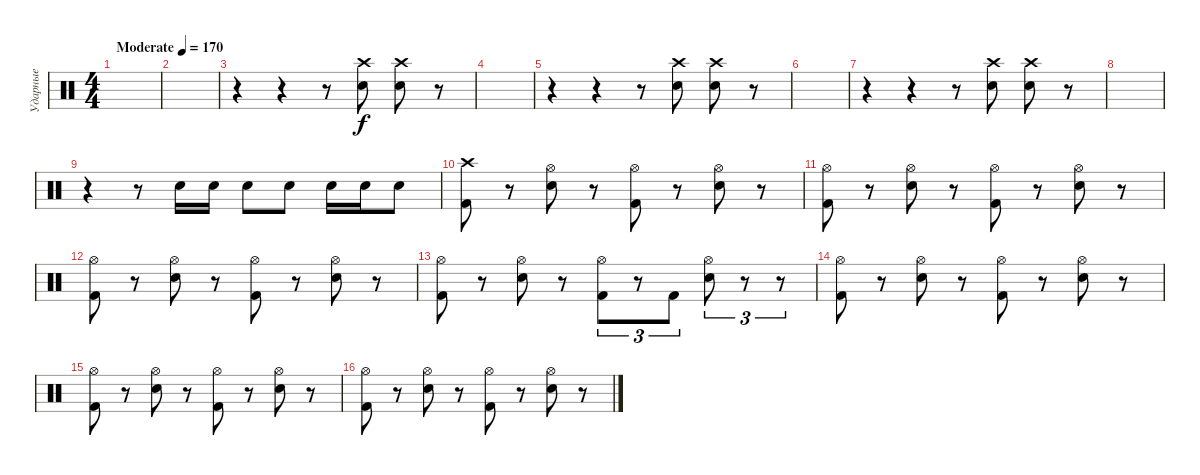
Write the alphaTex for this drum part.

\track ("Ударные" "Ударные") {instrument percussion}
\staff {score}
\articulation defaults
\ts (4 4)
\tempo (170 "Moderate")
\clef neutral
\ks c
|
|
r.4 r.4 r.8 ("Crash high (hit)" "Electric Snare (hit)").8 ("Crash high (hit)" "Electric Snare (hit)").8 r.8 |
|
r.4 r.4 r.8 ("Crash high (hit)" "Electric Snare (hit)").8 ("Crash high (hit)" "Electric Snare (hit)").8 r.8 |
|
r.4 r.4 r.8 ("Crash high (hit)" "Electric Snare (hit)").8 ("Crash high (hit)" "Electric Snare (hit)").8 r.8 |
|
r.4 r.8 "Electric Snare (hit)".16 "Electric Snare (hit)".16 "Electric Snare (hit)".8 "Electric Snare (hit)".8 "Electric Snare (hit)".16 "Electric Snare (hit)".16 "Electric Snare (hit)".8 |
("Crash high (hit)" "Kick (hit) 2").8 r.8 ("Hi-Hat (open)" "Electric Snare (hit)").8 r.8 ("Hi-Hat (open)" "Kick (hit) 2").8 r.8 ("Hi-Hat (open)" "Electric Snare (hit)").8 r.8 |
("Hi-Hat (open)" "Kick (hit) 2").8 r.8 ("Hi-Hat (open)" "Electric Snare (hit)").8 r.8 ("Hi-Hat (open)" "Kick (hit) 2").8 r.8 ("Hi-Hat (open)" "Electric Snare (hit)").8 r.8 |
("Hi-Hat (open)" "Kick (hit) 2").8 r.8 ("Hi-Hat (open)" "Electric Snare (hit)").8 r.8 ("Hi-Hat (open)" "Kick (hit) 2").8 r.8 ("Hi-Hat (open)" "Electric Snare (hit)").8 r.8 |
("Hi-Hat (open)" "Kick (hit) 2").8 r.8 ("Hi-Hat (open)" "Electric Snare (hit)").8 r.8 ("Hi-Hat (open)" "Kick (hit) 2").8{tu (3 2)} r.8{tu (3 2)} "Kick (hit) 2".8{tu (3 2)} ("Hi-Hat (open)" "Electric Snare (hit)").8{tu (3 2)} r.8{tu (3 2)} r.8{tu (3 2)} |
("Hi-Hat (open)" "Kick (hit) 2").8 r.8 ("Hi-Hat (open)" "Electric Snare (hit)").8 r.8 ("Hi-Hat (open)" "Kick (hit) 2").8 r.8 ("Hi-Hat (open)" "Electric Snare (hit)").8 r.8 |
("Hi-Hat (open)" "Kick (hit) 2").8 r.8 ("Hi-Hat (open)" "Electric Snare (hit)").8 r.8 ("Hi-Hat (open)" "Kick (hit) 2").8 r.8 ("Hi-Hat (open)" "Electric Snare (hit)").8 r.8 |
("Hi-Hat (open)" "Kick (hit) 2").8 r.8 ("Hi-Hat (open)" "Electric Snare (hit)").8 r.8 ("Hi-Hat (open)" "Kick (hit) 2").8 r.8 ("Hi-Hat (open)" "Electric Snare (hit)").8 r.8
